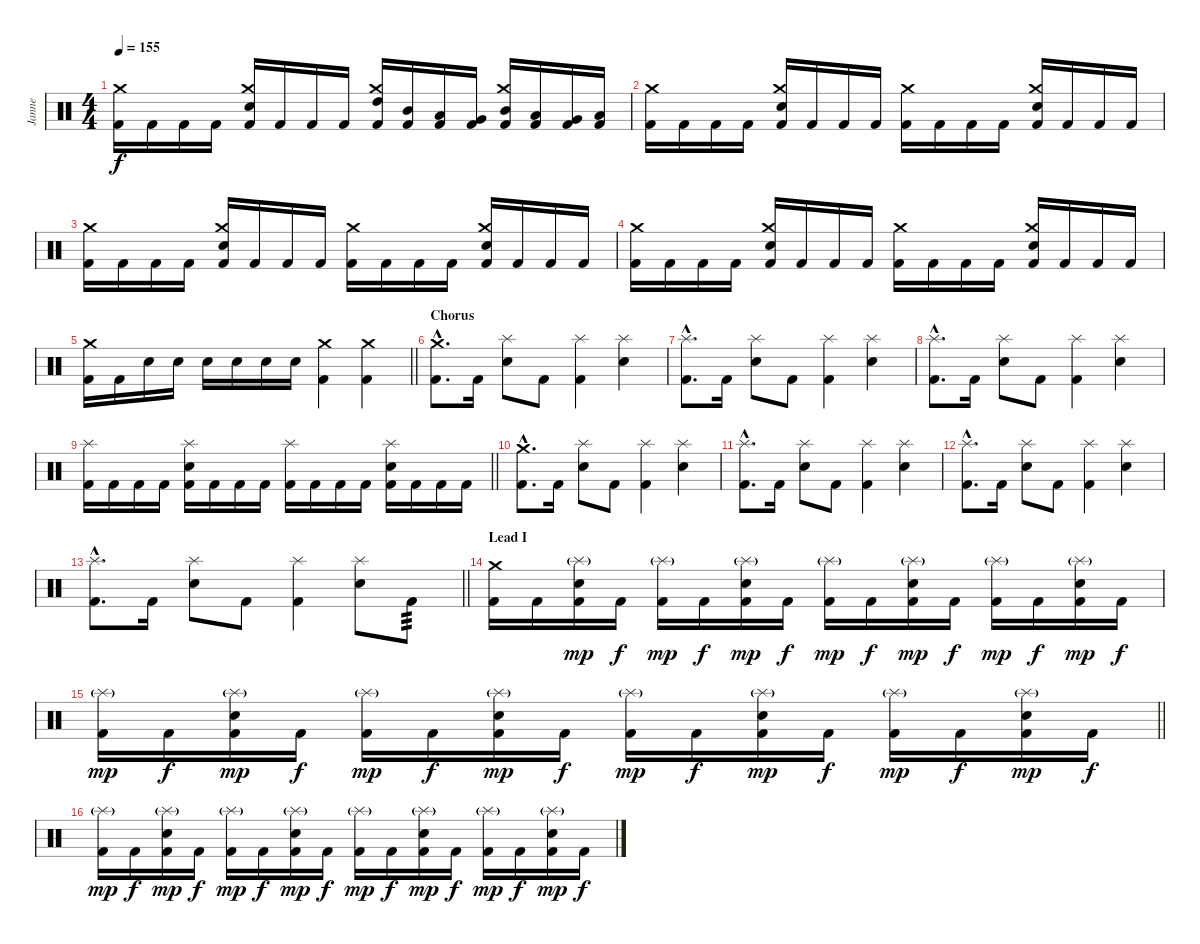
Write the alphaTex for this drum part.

\track ("Janne" "Janne") {instrument percussion}
\staff {score}
\articulation defaults
\ts (4 4)
\tempo 155
\clef neutral
\ks c
("Kick (hit) 2" "Crash medium (hit)").16{dy f} "Kick (hit) 2".16 "Kick (hit) 2".16 "Kick (hit) 2".16 ("Kick (hit) 2" "Snare (hit) 2" "Crash medium (hit)").16 "Kick (hit) 2".16 "Kick (hit) 2".16 "Kick (hit) 2".16 ("Kick (hit) 2" "High Tom (hit)" "Crash medium (hit)").16 ("Kick (hit) 2" "Mid Tom (hit)").16 ("Kick (hit) 2" "Low Tom (hit)").16 ("Kick (hit) 2" "Very Low Tom (hit)").16 ("Kick (hit) 2" "Mid Tom (hit)" "Crash medium (hit)").16 ("Kick (hit) 2" "Low Tom (hit)").16 ("Kick (hit) 2" "Very Low Tom (hit)").16 ("Kick (hit) 2" "Low Floor Tom (hit)").16 |
("Kick (hit) 2" "Crash medium (hit)").16 "Kick (hit) 2".16 "Kick (hit) 2".16 "Kick (hit) 2".16 ("Kick (hit) 2" "Snare (hit) 2" "Crash medium (hit)").16 "Kick (hit) 2".16 "Kick (hit) 2".16 "Kick (hit) 2".16 ("Kick (hit) 2" "Crash medium (hit)").16 "Kick (hit) 2".16 "Kick (hit) 2".16 "Kick (hit) 2".16 ("Kick (hit) 2" "Snare (hit) 2" "Crash medium (hit)").16 "Kick (hit) 2".16 "Kick (hit) 2".16 "Kick (hit) 2".16 |
("Kick (hit) 2" "Crash medium (hit)").16 "Kick (hit) 2".16 "Kick (hit) 2".16 "Kick (hit) 2".16 ("Kick (hit) 2" "Snare (hit) 2" "Crash medium (hit)").16 "Kick (hit) 2".16 "Kick (hit) 2".16 "Kick (hit) 2".16 ("Kick (hit) 2" "Crash medium (hit)").16 "Kick (hit) 2".16 "Kick (hit) 2".16 "Kick (hit) 2".16 ("Kick (hit) 2" "Snare (hit) 2" "Crash medium (hit)").16 "Kick (hit) 2".16 "Kick (hit) 2".16 "Kick (hit) 2".16 |
("Kick (hit) 2" "Crash medium (hit)").16 "Kick (hit) 2".16 "Kick (hit) 2".16 "Kick (hit) 2".16 ("Kick (hit) 2" "Snare (hit) 2" "Crash medium (hit)").16 "Kick (hit) 2".16 "Kick (hit) 2".16 "Kick (hit) 2".16 ("Kick (hit) 2" "Crash medium (hit)").16 "Kick (hit) 2".16 "Kick (hit) 2".16 "Kick (hit) 2".16 ("Kick (hit) 2" "Snare (hit) 2" "Crash medium (hit)").16 "Kick (hit) 2".16 "Kick (hit) 2".16 "Kick (hit) 2".16 |
\barLineRight lightlight
("Kick (hit) 2" "Crash medium (hit)").16 "Kick (hit) 2".16 "Snare (hit) 2".16 "Snare (hit) 2".16 "Snare (hit) 2".16 "Snare (hit) 2".16 "Snare (hit) 2".16 "Snare (hit) 2".16 ("Kick (hit) 2" "Crash medium (hit)").4 ("Kick (hit) 2" "Crash medium (hit)").4 |
\section ("" "Chorus")
("Kick (hit) 2"{hac} "Crash medium (hit)"{hac}).8{d} "Kick (hit) 2".16 ("Snare (hit) 2" "Splash (hit)").8 "Kick (hit) 2".8 ("Kick (hit) 2" "Splash (hit)").4 ("Snare (hit) 2" "Splash (hit)").4 |
("Kick (hit) 2"{hac} "Splash (hit)"{hac}).8{d} "Kick (hit) 2".16 ("Snare (hit) 2" "Splash (hit)").8 "Kick (hit) 2".8 ("Kick (hit) 2" "Splash (hit)").4 ("Snare (hit) 2" "Splash (hit)").4 |
("Kick (hit) 2"{hac} "Splash (hit)"{hac}).8{d} "Kick (hit) 2".16 ("Snare (hit) 2" "Splash (hit)").8 "Kick (hit) 2".8 ("Kick (hit) 2" "Splash (hit)").4 ("Snare (hit) 2" "Splash (hit)").4 |
\barLineRight lightlight
("Kick (hit) 2" "Splash (hit)").16 "Kick (hit) 2".16 "Kick (hit) 2".16 "Kick (hit) 2".16 ("Kick (hit) 2" "Snare (hit) 2" "Splash (hit)").16 "Kick (hit) 2".16 "Kick (hit) 2".16 "Kick (hit) 2".16 ("Kick (hit) 2" "Splash (hit)").16 "Kick (hit) 2".16 "Kick (hit) 2".16 "Kick (hit) 2".16 ("Kick (hit) 2" "Snare (hit) 2" "Splash (hit)").16 "Kick (hit) 2".16 "Kick (hit) 2".16 "Kick (hit) 2".16 |
("Kick (hit) 2"{hac} "Crash medium (hit)"{hac}).8{d} "Kick (hit) 2".16 ("Snare (hit) 2" "Splash (hit)").8 "Kick (hit) 2".8 ("Kick (hit) 2" "Splash (hit)").4 ("Snare (hit) 2" "Splash (hit)").4 |
("Kick (hit) 2"{hac} "Splash (hit)"{hac}).8{d} "Kick (hit) 2".16 ("Snare (hit) 2" "Splash (hit)").8 "Kick (hit) 2".8 ("Kick (hit) 2" "Splash (hit)").4 ("Snare (hit) 2" "Splash (hit)").4 |
("Kick (hit) 2"{hac} "Splash (hit)"{hac}).8{d} "Kick (hit) 2".16 ("Snare (hit) 2" "Splash (hit)").8 "Kick (hit) 2".8 ("Kick (hit) 2" "Splash (hit)").4 ("Snare (hit) 2" "Splash (hit)").4 |
\barLineRight lightlight
("Kick (hit) 2"{hac} "Splash (hit)"{hac}).8{d} "Kick (hit) 2".16 ("Snare (hit) 2" "Splash (hit)").8 "Kick (hit) 2".8 ("Kick (hit) 2" "Splash (hit)").4 ("Snare (hit) 2" "Splash (hit)").8 "Kick (hit) 2".8{tp 3} |
\section ("" "Lead I")
("Kick (hit) 2" "Crash medium (hit)").16 "Kick (hit) 2".16 ("Kick (hit) 2" "Snare (hit) 2" "Splash (hit)"{g}).16{dy mp} "Kick (hit) 2".16{dy f} ("Kick (hit) 2" "Splash (hit)"{g}).16{dy mp} "Kick (hit) 2".16{dy f} ("Kick (hit) 2" "Snare (hit) 2" "Splash (hit)"{g}).16{dy mp} "Kick (hit) 2".16{dy f} ("Kick (hit) 2" "Splash (hit)"{g}).16{dy mp} "Kick (hit) 2".16{dy f} ("Kick (hit) 2" "Snare (hit) 2" "Splash (hit)"{g}).16{dy mp} "Kick (hit) 2".16{dy f} ("Kick (hit) 2" "Splash (hit)"{g}).16{dy mp} "Kick (hit) 2".16{dy f} ("Kick (hit) 2" "Snare (hit) 2" "Splash (hit)"{g}).16{dy mp} "Kick (hit) 2".16{dy f} |
\barLineRight lightlight
("Kick (hit) 2" "Splash (hit)"{g}).16{dy mp} "Kick (hit) 2".16{dy f} ("Kick (hit) 2" "Snare (hit) 2" "Splash (hit)"{g}).16{dy mp} "Kick (hit) 2".16{dy f} ("Kick (hit) 2" "Splash (hit)"{g}).16{dy mp} "Kick (hit) 2".16{dy f} ("Kick (hit) 2" "Snare (hit) 2" "Splash (hit)"{g}).16{dy mp} "Kick (hit) 2".16{dy f} ("Kick (hit) 2" "Splash (hit)"{g}).16{dy mp} "Kick (hit) 2".16{dy f} ("Kick (hit) 2" "Snare (hit) 2" "Splash (hit)"{g}).16{dy mp} "Kick (hit) 2".16{dy f} ("Kick (hit) 2" "Splash (hit)"{g}).16{dy mp} "Kick (hit) 2".16{dy f} ("Kick (hit) 2" "Snare (hit) 2" "Splash (hit)"{g}).16{dy mp} "Kick (hit) 2".16{dy f} |
("Kick (hit) 2" "Splash (hit)"{g}).16{dy mp} "Kick (hit) 2".16{dy f} ("Kick (hit) 2" "Snare (hit) 2" "Splash (hit)"{g}).16{dy mp} "Kick (hit) 2".16{dy f} ("Kick (hit) 2" "Splash (hit)"{g}).16{dy mp} "Kick (hit) 2".16{dy f} ("Kick (hit) 2" "Snare (hit) 2" "Splash (hit)"{g}).16{dy mp} "Kick (hit) 2".16{dy f} ("Kick (hit) 2" "Splash (hit)"{g}).16{dy mp} "Kick (hit) 2".16{dy f} ("Kick (hit) 2" "Snare (hit) 2" "Splash (hit)"{g}).16{dy mp} "Kick (hit) 2".16{dy f} ("Kick (hit) 2" "Splash (hit)"{g}).16{dy mp} "Kick (hit) 2".16{dy f} ("Kick (hit) 2" "Snare (hit) 2" "Splash (hit)"{g}).16{dy mp} "Kick (hit) 2".16{dy f}
